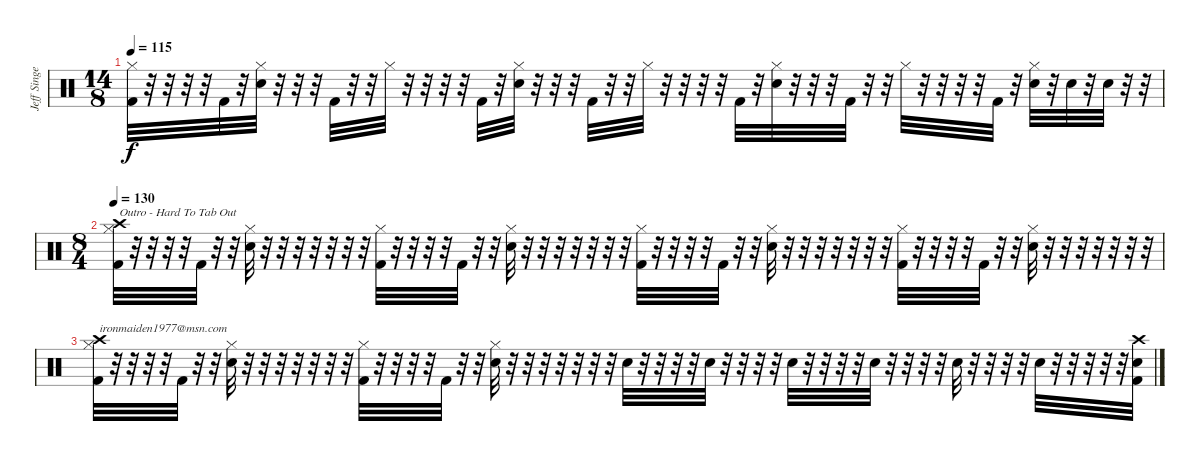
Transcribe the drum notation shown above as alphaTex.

\track ("Jeff Singer" "Jeff Singe") {instrument percussion}
\staff {score}
\articulation defaults
\ts (14 8)
\tempo 115
\clef neutral
\ks c
("Hi-Hat (closed)" "Kick (hit) 2").32{dy f} r.32 r.32 r.32 r.32 "Kick (hit) 2".32 r.32 ("Hi-Hat (closed)" "Snare (hit) 2").32 r.32 r.32 r.32 "Kick (hit) 2".32 r.32 r.32 "Hi-Hat (closed)".32 r.32 r.32 r.32 r.32 "Kick (hit) 2".32 r.32 ("Hi-Hat (closed)" "Snare (hit) 2").32 r.32 r.32 r.32 "Kick (hit) 2".32 r.32 r.32 "Hi-Hat (closed)".32 r.32 r.32 r.32 r.32 "Kick (hit) 2".32 r.32 ("Hi-Hat (closed)" "Snare (hit) 2").32 r.32 r.32 r.32 "Kick (hit) 2".32 r.32 r.32 "Hi-Hat (closed)".32 r.32 r.32 r.32 r.32 "Kick (hit) 2".32 r.32 ("Hi-Hat (closed)" "Snare (hit) 2").32 r.32 "Snare (hit) 2".32 r.32 "Snare (hit) 2".32 r.32 r.32 |
\ts (8 4)
\tempo 130
("Hi-Hat (closed)" "Kick (hit) 2" "Crash high (hit)").32{txt "Outro - Hard To Tab Out"} r.32 r.32 r.32 r.32 "Kick (hit) 2".32 r.32 r.32 ("Hi-Hat (closed)" "Snare (hit) 2").32 r.32 r.32 r.32 r.32 r.32 r.32 r.32 ("Hi-Hat (closed)" "Kick (hit) 2").32 r.32 r.32 r.32 r.32 "Kick (hit) 2".32 r.32 r.32 ("Hi-Hat (closed)" "Snare (hit) 2").32 r.32 r.32 r.32 r.32 r.32 r.32 r.32 ("Hi-Hat (closed)" "Kick (hit) 2").32 r.32 r.32 r.32 r.32 "Kick (hit) 2".32 r.32 r.32 ("Hi-Hat (closed)" "Snare (hit) 2").32 r.32 r.32 r.32 r.32 r.32 r.32 r.32 ("Hi-Hat (closed)" "Kick (hit) 2").32 r.32 r.32 r.32 r.32 "Kick (hit) 2".32 r.32 r.32 ("Hi-Hat (closed)" "Snare (hit) 2").32 r.32 r.32 r.32 r.32 r.32 r.32 r.32 |
("Hi-Hat (closed)" "Kick (hit) 2" "Crash high (hit)").32{txt "ironmaiden1977@msn.com"} r.32 r.32 r.32 r.32 "Kick (hit) 2".32 r.32 r.32 ("Hi-Hat (closed)" "Snare (hit) 2").32 r.32 r.32 r.32 r.32 r.32 r.32 r.32 ("Hi-Hat (closed)" "Kick (hit) 2").32 r.32 r.32 r.32 r.32 "Kick (hit) 2".32 r.32 r.32 ("Hi-Hat (closed)" "Snare (hit) 2").32 r.32 r.32 r.32 r.32 r.32 r.32 r.32 "Snare (hit) 2".32 r.32 r.32 r.32 r.32 "Snare (hit) 2".32 r.32 r.32 r.32 r.32 "Snare (hit) 2".32 r.32 r.32 r.32 r.32 "Snare (hit) 2".32 r.32 r.32 r.32 r.32 "Snare (hit) 2".32 r.32 r.32 r.32 r.32 "Snare (hit) 2".32 r.32 r.32 r.32 r.32 r.32 ("Kick (hit) 2" "Snare (hit) 2" "Crash high (hit)").32
